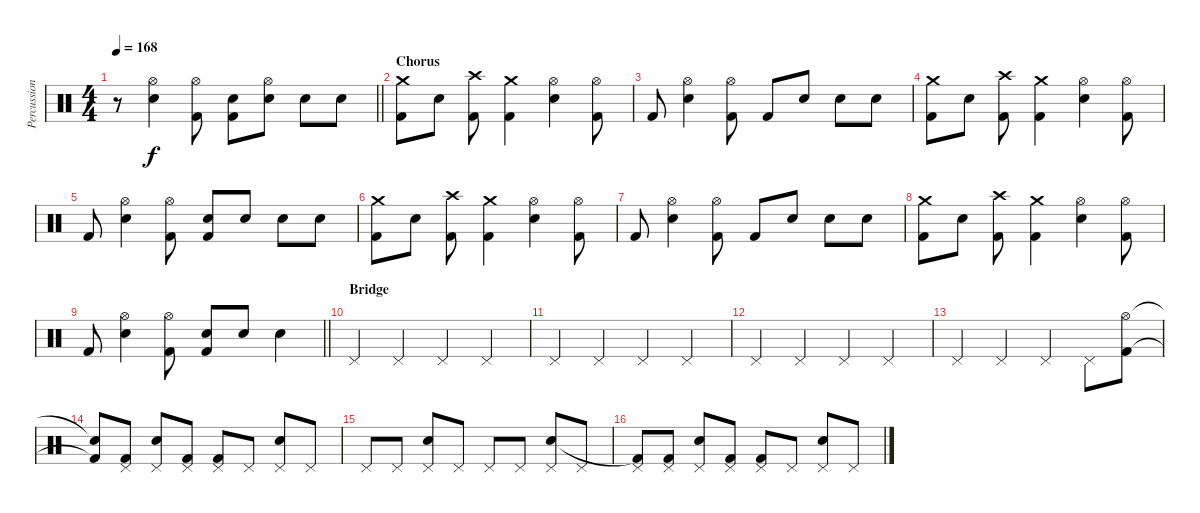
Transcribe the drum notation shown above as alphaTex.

\track ("Percussion" "Percussion") {instrument percussion}
\staff {score}
\articulation defaults
\ts (4 4)
\tempo 168
\clef neutral
\barLineRight lightlight
\ks c
r.8{dy f} ("Hi-Hat (open)" "Snare (hit) 2").4 ("Hi-Hat (open)" "Kick (hit) 2").8 ("Snare (hit) 2" "Kick (hit) 2").8 ("Hi-Hat (open)" "Snare (hit) 2").8 "Snare (hit) 2".8 "Snare (hit) 2".8 |
\section ("" "Chorus")
("Crash medium (hit)" "Kick (hit) 2").8 "Snare (hit) 2".8 ("Crash high (hit)" "Kick (hit) 2").8 ("Crash medium (hit)" "Kick (hit) 2").4 ("Hi-Hat (open)" "Snare (hit) 2").4 ("Hi-Hat (open)" "Kick (hit) 2").8 |
"Kick (hit) 2".8 ("Hi-Hat (open)" "Snare (hit) 2").4 ("Hi-Hat (open)" "Kick (hit) 2").8 "Kick (hit) 2".8 "Snare (hit) 2".8 "Snare (hit) 2".8 "Snare (hit) 2".8 |
("Crash medium (hit)" "Kick (hit) 2").8 "Snare (hit) 2".8 ("Crash high (hit)" "Kick (hit) 2").8 ("Crash medium (hit)" "Kick (hit) 2").4 ("Hi-Hat (open)" "Snare (hit) 2").4 ("Hi-Hat (open)" "Kick (hit) 2").8 |
"Kick (hit) 2".8 ("Hi-Hat (open)" "Snare (hit) 2").4 ("Hi-Hat (open)" "Kick (hit) 2").8 ("Snare (hit) 2" "Kick (hit) 2").8 "Snare (hit) 2".8 "Snare (hit) 2".8 "Snare (hit) 2".8 |
("Crash medium (hit)" "Kick (hit) 2").8 "Snare (hit) 2".8 ("Crash high (hit)" "Kick (hit) 2").8 ("Crash medium (hit)" "Kick (hit) 2").4 ("Hi-Hat (open)" "Snare (hit) 2").4 ("Hi-Hat (open)" "Kick (hit) 2").8 |
"Kick (hit) 2".8 ("Hi-Hat (open)" "Snare (hit) 2").4 ("Hi-Hat (open)" "Kick (hit) 2").8 "Kick (hit) 2".8 "Snare (hit) 2".8 "Snare (hit) 2".8 "Snare (hit) 2".8 |
("Crash medium (hit)" "Kick (hit) 2").8 "Snare (hit) 2".8 ("Crash high (hit)" "Kick (hit) 2").8 ("Crash medium (hit)" "Kick (hit) 2").4 ("Hi-Hat (open)" "Snare (hit) 2").4 ("Hi-Hat (open)" "Kick (hit) 2").8 |
\barLineRight lightlight "Kick (hit) 2".8
("Hi-Hat (open)" "Snare (hit) 2").4 ("Hi-Hat (open)" "Kick (hit) 2").8 ("Snare (hit) 2" "Kick (hit) 2").8 "Snare (hit) 2".8 "Snare (hit) 2".4 |
\section ("" "Bridge")
"Pedal Hi-Hat (hit)".4 "Pedal Hi-Hat (hit)".4 "Pedal Hi-Hat (hit)".4 "Pedal Hi-Hat (hit)".4 |
"Pedal Hi-Hat (hit)".4 "Pedal Hi-Hat (hit)".4 "Pedal Hi-Hat (hit)".4 "Pedal Hi-Hat (hit)".4 |
"Pedal Hi-Hat (hit)".4 "Pedal Hi-Hat (hit)".4 "Pedal Hi-Hat (hit)".4 "Pedal Hi-Hat (hit)".4 |
"Pedal Hi-Hat (hit)".4 "Pedal Hi-Hat (hit)".4 "Pedal Hi-Hat (hit)".4 "Pedal Hi-Hat (hit)".8 ("Hi-Hat (open)" "Kick (hit) 2").8 |
("Snare (hit)"{t} "Kick (hit) 2"{t}).8 ("Pedal Hi-Hat (hit)" "Kick (hit) 2").8 ("Pedal Hi-Hat (hit)" "Snare (hit) 2").8 ("Pedal Hi-Hat (hit)" "Kick (hit) 2").8 ("Pedal Hi-Hat (hit)" "Kick (hit) 2").8 "Pedal Hi-Hat (hit)".8 ("Pedal Hi-Hat (hit)" "Snare (hit) 2").8 "Pedal Hi-Hat (hit)".8 |
"Pedal Hi-Hat (hit)".8 "Pedal Hi-Hat (hit)".8 ("Pedal Hi-Hat (hit)" "Snare (hit) 2").8 "Pedal Hi-Hat (hit)".8 "Pedal Hi-Hat (hit)".8 "Pedal Hi-Hat (hit)".8 ("Pedal Hi-Hat (hit)" "Snare (hit) 2").8 "Pedal Hi-Hat (hit)".8 |
("Pedal Hi-Hat (hit)" "Kick (hit) 2"{t}).8 ("Pedal Hi-Hat (hit)" "Kick (hit) 2").8 ("Pedal Hi-Hat (hit)" "Snare (hit) 2").8 ("Pedal Hi-Hat (hit)" "Kick (hit) 2").8 ("Pedal Hi-Hat (hit)" "Kick (hit) 2").8 "Pedal Hi-Hat (hit)".8 ("Pedal Hi-Hat (hit)" "Snare (hit) 2").8 "Pedal Hi-Hat (hit)".8
